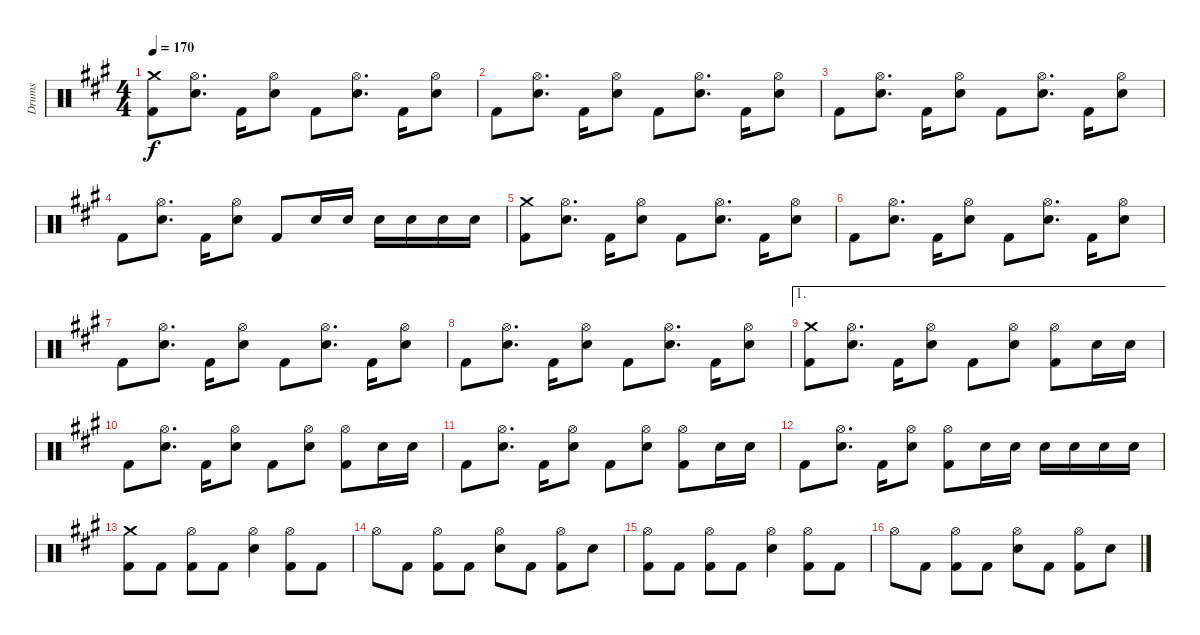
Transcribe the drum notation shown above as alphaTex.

\track ("Drums" "Drums") {instrument percussion}
\staff {score}
\articulation defaults
\ts (4 4)
\tempo 170
\clef neutral
\ks a
("Crash medium (hit)" "Kick (hit) 2").8{dy f} ("Hi-Hat (open)" "Electric Snare (hit)").8{d} "Kick (hit) 2".16 ("Hi-Hat (open)" "Electric Snare (hit)").8 "Kick (hit) 2".8 ("Hi-Hat (open)" "Electric Snare (hit)").8{d} "Kick (hit) 2".16 ("Hi-Hat (open)" "Electric Snare (hit)").8 |
"Kick (hit) 2".8 ("Hi-Hat (open)" "Electric Snare (hit)").8{d} "Kick (hit) 2".16 ("Hi-Hat (open)" "Electric Snare (hit)").8 "Kick (hit) 2".8 ("Hi-Hat (open)" "Electric Snare (hit)").8{d} "Kick (hit) 2".16 ("Hi-Hat (open)" "Electric Snare (hit)").8 |
"Kick (hit) 2".8 ("Hi-Hat (open)" "Electric Snare (hit)").8{d} "Kick (hit) 2".16 ("Hi-Hat (open)" "Electric Snare (hit)").8 "Kick (hit) 2".8 ("Hi-Hat (open)" "Electric Snare (hit)").8{d} "Kick (hit) 2".16 ("Hi-Hat (open)" "Electric Snare (hit)").8 |
"Kick (hit) 2".8 ("Hi-Hat (open)" "Electric Snare (hit)").8{d} "Kick (hit) 2".16 ("Hi-Hat (open)" "Electric Snare (hit)").8 "Kick (hit) 2".8 "Electric Snare (hit)".16 "Electric Snare (hit)".16 "Electric Snare (hit)".16 "Electric Snare (hit)".16 "Electric Snare (hit)".16 "Electric Snare (hit)".16 |
("Crash medium (hit)" "Kick (hit) 2").8 ("Hi-Hat (open)" "Electric Snare (hit)").8{d} "Kick (hit) 2".16 ("Hi-Hat (open)" "Electric Snare (hit)").8 "Kick (hit) 2".8 ("Hi-Hat (open)" "Electric Snare (hit)").8{d} "Kick (hit) 2".16 ("Hi-Hat (open)" "Electric Snare (hit)").8 |
"Kick (hit) 2".8 ("Hi-Hat (open)" "Electric Snare (hit)").8{d} "Kick (hit) 2".16 ("Hi-Hat (open)" "Electric Snare (hit)").8 "Kick (hit) 2".8 ("Hi-Hat (open)" "Electric Snare (hit)").8{d} "Kick (hit) 2".16 ("Hi-Hat (open)" "Electric Snare (hit)").8 |
"Kick (hit) 2".8 ("Hi-Hat (open)" "Electric Snare (hit)").8{d} "Kick (hit) 2".16 ("Hi-Hat (open)" "Electric Snare (hit)").8 "Kick (hit) 2".8 ("Hi-Hat (open)" "Electric Snare (hit)").8{d} "Kick (hit) 2".16 ("Hi-Hat (open)" "Electric Snare (hit)").8 |
"Kick (hit) 2".8 ("Hi-Hat (open)" "Electric Snare (hit)").8{d} "Kick (hit) 2".16 ("Hi-Hat (open)" "Electric Snare (hit)").8 "Kick (hit) 2".8 ("Hi-Hat (open)" "Electric Snare (hit)").8{d} "Kick (hit) 2".16 ("Hi-Hat (open)" "Electric Snare (hit)").8 |
\ae 1
("Crash medium (hit)" "Kick (hit) 2").8 ("Hi-Hat (open)" "Electric Snare (hit)").8{d} "Kick (hit) 2".16 ("Hi-Hat (open)" "Electric Snare (hit)").8 "Kick (hit) 2".8 ("Hi-Hat (open)" "Electric Snare (hit)").8 ("Hi-Hat (open)" "Kick (hit) 2").8 "Electric Snare (hit)".16 "Electric Snare (hit)".16 |
"Kick (hit) 2".8 ("Hi-Hat (open)" "Electric Snare (hit)").8{d} "Kick (hit) 2".16 ("Hi-Hat (open)" "Electric Snare (hit)").8 "Kick (hit) 2".8 ("Hi-Hat (open)" "Electric Snare (hit)").8 ("Hi-Hat (open)" "Kick (hit) 2").8 "Electric Snare (hit)".16 "Electric Snare (hit)".16 |
"Kick (hit) 2".8 ("Hi-Hat (open)" "Electric Snare (hit)").8{d} "Kick (hit) 2".16 ("Hi-Hat (open)" "Electric Snare (hit)").8 "Kick (hit) 2".8 ("Hi-Hat (open)" "Electric Snare (hit)").8 ("Hi-Hat (open)" "Kick (hit) 2").8 "Electric Snare (hit)".16 "Electric Snare (hit)".16 |
"Kick (hit) 2".8 ("Hi-Hat (open)" "Electric Snare (hit)").8{d} "Kick (hit) 2".16 ("Hi-Hat (open)" "Electric Snare (hit)").8 ("Hi-Hat (open)" "Kick (hit) 2").8 "Electric Snare (hit)".16 "Electric Snare (hit)".16 "Electric Snare (hit)".16 "Electric Snare (hit)".16 "Electric Snare (hit)".16 "Electric Snare (hit)".16 |
("Crash medium (hit)" "Kick (hit) 2").8 "Kick (hit) 2".8 ("Hi-Hat (open)" "Kick (hit) 2").8 "Kick (hit) 2".8 ("Hi-Hat (open)" "Electric Snare (hit)").4 ("Hi-Hat (open)" "Kick (hit) 2").8 "Kick (hit) 2".8 |
"Hi-Hat (open)".8 "Kick (hit) 2".8 ("Hi-Hat (open)" "Kick (hit) 2").8 "Kick (hit) 2".8 ("Hi-Hat (open)" "Electric Snare (hit)").8 "Kick (hit) 2".8 ("Hi-Hat (open)" "Kick (hit) 2").8 "Electric Snare (hit)".8 |
("Hi-Hat (open)" "Kick (hit) 2").8 "Kick (hit) 2".8 ("Hi-Hat (open)" "Kick (hit) 2").8 "Kick (hit) 2".8 ("Hi-Hat (open)" "Electric Snare (hit)").4 ("Hi-Hat (open)" "Kick (hit) 2").8 "Kick (hit) 2".8 |
"Hi-Hat (open)".8 "Kick (hit) 2".8 ("Hi-Hat (open)" "Kick (hit) 2").8 "Kick (hit) 2".8 ("Hi-Hat (open)" "Electric Snare (hit)").8 "Kick (hit) 2".8 ("Hi-Hat (open)" "Kick (hit) 2").8 "Electric Snare (hit)".8
